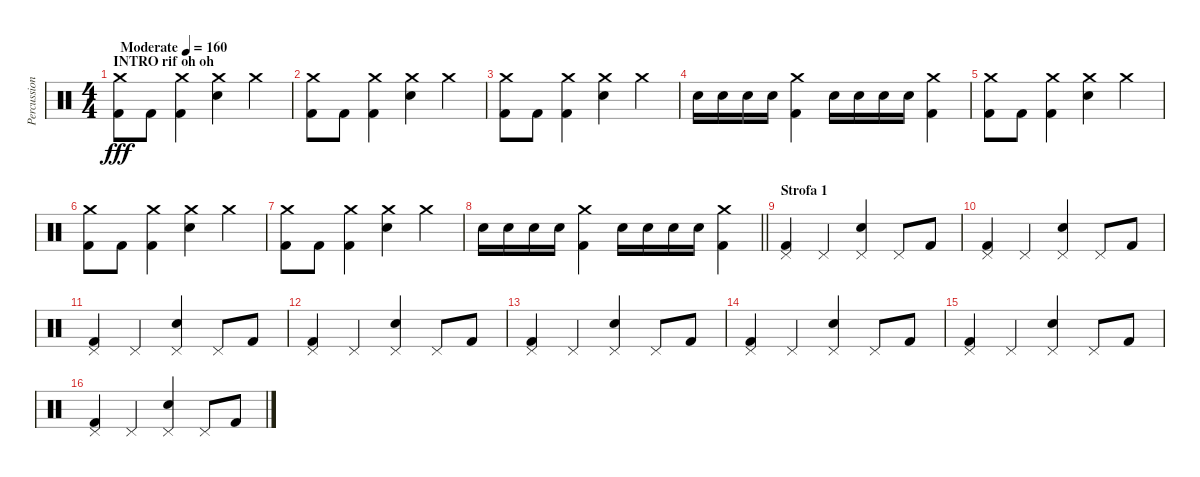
\track ("Percussioni" "Percussion") {instrument percussion}
\staff {score}
\articulation defaults
\ts (4 4)
\section ("" "INTRO rif oh oh")
\tempo (160 "Moderate")
\clef neutral
\ks c
("Crash medium (hit)" "Kick (hit) 2").8{dy fff} "Kick (hit) 2".8 ("Crash medium (hit)" "Kick (hit) 2").4 ("Crash medium (hit)" "Snare (hit) 2").4 "Crash medium (hit)".4 |
("Crash medium (hit)" "Kick (hit) 2").8 "Kick (hit) 2".8 ("Crash medium (hit)" "Kick (hit) 2").4 ("Crash medium (hit)" "Snare (hit) 2").4 "Crash medium (hit)".4 |
("Crash medium (hit)" "Kick (hit) 2").8 "Kick (hit) 2".8 ("Crash medium (hit)" "Kick (hit) 2").4 ("Crash medium (hit)" "Snare (hit) 2").4 "Crash medium (hit)".4 |
"Snare (hit) 2".16 "Snare (hit) 2".16 "Snare (hit) 2".16 "Snare (hit) 2".16 ("Crash medium (hit)" "Kick (hit) 2").4 "Snare (hit) 2".16 "Snare (hit) 2".16 "Snare (hit) 2".16 "Snare (hit) 2".16 ("Crash medium (hit)" "Kick (hit) 2").4 |
("Crash medium (hit)" "Kick (hit) 2").8 "Kick (hit) 2".8 ("Crash medium (hit)" "Kick (hit) 2").4 ("Crash medium (hit)" "Snare (hit) 2").4 "Crash medium (hit)".4 |
("Crash medium (hit)" "Kick (hit) 2").8 "Kick (hit) 2".8 ("Crash medium (hit)" "Kick (hit) 2").4 ("Crash medium (hit)" "Snare (hit) 2").4 "Crash medium (hit)".4 |
("Crash medium (hit)" "Kick (hit) 2").8 "Kick (hit) 2".8 ("Crash medium (hit)" "Kick (hit) 2").4 ("Crash medium (hit)" "Snare (hit) 2").4 "Crash medium (hit)".4 |
\barLineRight lightlight "Snare (hit) 2".16 "Snare (hit) 2".16 "Snare (hit) 2".16 "Snare (hit) 2".16
("Crash medium (hit)" "Kick (hit) 2").4 "Snare (hit) 2".16 "Snare (hit) 2".16 "Snare (hit) 2".16 "Snare (hit) 2".16 ("Crash medium (hit)" "Kick (hit) 2").4 |
\section ("" "Strofa 1")
("Pedal Hi-Hat (hit)" "Kick (hit) 2").4 "Pedal Hi-Hat (hit)".4 ("Pedal Hi-Hat (hit)" "Snare (hit) 2").4 "Pedal Hi-Hat (hit)".8 "Kick (hit) 2".8 |
("Pedal Hi-Hat (hit)" "Kick (hit) 2").4 "Pedal Hi-Hat (hit)".4 ("Pedal Hi-Hat (hit)" "Snare (hit) 2").4 "Pedal Hi-Hat (hit)".8 "Kick (hit) 2".8 |
("Pedal Hi-Hat (hit)" "Kick (hit) 2").4 "Pedal Hi-Hat (hit)".4 ("Pedal Hi-Hat (hit)" "Snare (hit) 2").4 "Pedal Hi-Hat (hit)".8 "Kick (hit) 2".8 |
("Pedal Hi-Hat (hit)" "Kick (hit) 2").4 "Pedal Hi-Hat (hit)".4 ("Pedal Hi-Hat (hit)" "Snare (hit) 2").4 "Pedal Hi-Hat (hit)".8 "Kick (hit) 2".8 |
("Pedal Hi-Hat (hit)" "Kick (hit) 2").4 "Pedal Hi-Hat (hit)".4 ("Pedal Hi-Hat (hit)" "Snare (hit) 2").4 "Pedal Hi-Hat (hit)".8 "Kick (hit) 2".8 |
("Pedal Hi-Hat (hit)" "Kick (hit) 2").4 "Pedal Hi-Hat (hit)".4 ("Pedal Hi-Hat (hit)" "Snare (hit) 2").4 "Pedal Hi-Hat (hit)".8 "Kick (hit) 2".8 |
("Pedal Hi-Hat (hit)" "Kick (hit) 2").4 "Pedal Hi-Hat (hit)".4 ("Pedal Hi-Hat (hit)" "Snare (hit) 2").4 "Pedal Hi-Hat (hit)".8 "Kick (hit) 2".8 |
("Pedal Hi-Hat (hit)" "Kick (hit) 2").4 "Pedal Hi-Hat (hit)".4 ("Pedal Hi-Hat (hit)" "Snare (hit) 2").4 "Pedal Hi-Hat (hit)".8 "Kick (hit) 2".8
